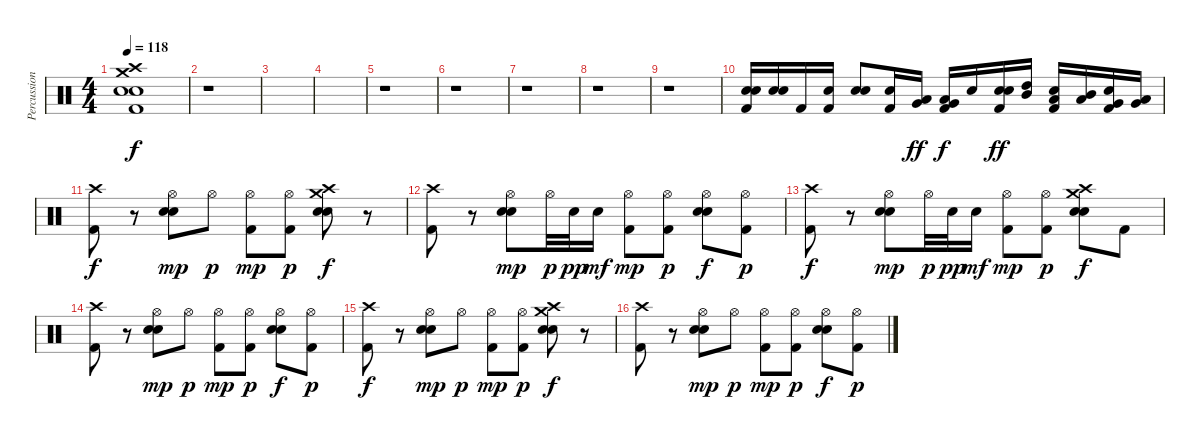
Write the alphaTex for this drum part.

\track ("Percussion" "Percussion") {instrument percussion}
\staff
\articulation defaults
\ts (4 4)
\tempo 118
\clef neutral
\ks c
("Crash medium (hit)" "Crash high (hit)" "Electric Snare (hit)" "Snare (hit) 2" "Kick (hit) 2").1{dy f} |
r.1 |
|
|
r.1 |
r.1 |
r.1 |
r.1 |
r.1 |
("Snare (hit) 2" "Electric Snare (hit)" "Kick (hit) 2").16 ("Snare (hit) 2" "Electric Snare (hit)").16 "Kick (hit) 2".16 ("Electric Snare (hit)" "Kick (hit) 2").16 ("Snare (hit) 2" "Electric Snare (hit)").8 ("Electric Snare (hit)" "Kick (hit) 2").16 ("Very Low Tom (hit)" "Low Tom (hit)").16{dy ff} ("Very Low Tom (hit)" "Low Floor Tom (hit)" "Kick (hit) 2").16{dy f} "Electric Snare (hit)".16 ("Snare (hit) 2" "Electric Snare (hit)" "Kick (hit) 2").16{dy ff} ("High Tom (hit)" "Mid Tom (hit)").16 ("Low Tom (hit)" "Electric Snare (hit)" "Kick (hit) 2").16 ("Low Tom (hit)" "Mid Tom (hit)").16 ("Very Low Tom (hit)" "Electric Snare (hit)" "Kick (hit) 2").16 ("Very Low Tom (hit)" "Low Tom (hit)").16 |
("Crash high (hit)" "Kick (hit) 2").8{dy f} r.8 ("Hi-Hat (open)" "Electric Snare (hit)" "Snare (hit) 2").8{dy mp} "Hi-Hat (open)".8{dy p} ("Hi-Hat (open)" "Kick (hit) 2").8{dy mp} ("Hi-Hat (open)" "Kick (hit) 2").8{dy p} ("Crash medium (hit)" "Crash high (hit)" "Electric Snare (hit)" "Snare (hit) 2").8{dy f} r.8 |
("Crash high (hit)" "Kick (hit) 2").8 r.8 ("Hi-Hat (open)" "Electric Snare (hit)" "Snare (hit) 2").8{dy mp} "Hi-Hat (open)".32{dy p} "Snare (hit) 2".32{dy pp} "Snare (hit) 2".16{dy mf} ("Hi-Hat (open)" "Kick (hit) 2").8{dy mp} ("Hi-Hat (open)" "Kick (hit) 2").8{dy p} ("Hi-Hat (open)" "Electric Snare (hit)" "Snare (hit) 2").8{dy f} ("Hi-Hat (open)" "Kick (hit) 2").8{dy p} |
("Crash high (hit)" "Kick (hit) 2").8{dy f} r.8 ("Hi-Hat (open)" "Electric Snare (hit)" "Snare (hit) 2").8{dy mp} "Hi-Hat (open)".32{dy p} "Snare (hit) 2".32{dy pp} "Snare (hit) 2".16{dy mf} ("Hi-Hat (open)" "Kick (hit) 2").8{dy mp} ("Hi-Hat (open)" "Kick (hit) 2").8{dy p} ("Crash medium (hit)" "Crash high (hit)" "Electric Snare (hit)" "Snare (hit) 2").8{dy f} "Kick (hit) 2".8 |
("Crash high (hit)" "Kick (hit) 2").8 r.8 ("Hi-Hat (open)" "Electric Snare (hit)" "Snare (hit) 2").8{dy mp} "Hi-Hat (open)".8{dy p} ("Hi-Hat (open)" "Kick (hit) 2").8{dy mp} ("Hi-Hat (open)" "Kick (hit) 2").8{dy p} ("Hi-Hat (open)" "Electric Snare (hit)" "Snare (hit) 2").8{dy f} ("Hi-Hat (open)" "Kick (hit) 2").8{dy p} |
("Crash high (hit)" "Kick (hit) 2").8{dy f} r.8 ("Hi-Hat (open)" "Electric Snare (hit)" "Snare (hit) 2").8{dy mp} "Hi-Hat (open)".8{dy p} ("Hi-Hat (open)" "Kick (hit) 2").8{dy mp} ("Hi-Hat (open)" "Kick (hit) 2").8{dy p} ("Crash medium (hit)" "Crash high (hit)" "Electric Snare (hit)" "Snare (hit) 2").8{dy f} r.8 |
("Crash high (hit)" "Kick (hit) 2").8 r.8 ("Hi-Hat (open)" "Electric Snare (hit)" "Snare (hit) 2").8{dy mp} "Hi-Hat (open)".8{dy p} ("Hi-Hat (open)" "Kick (hit) 2").8{dy mp} ("Hi-Hat (open)" "Kick (hit) 2").8{dy p} ("Hi-Hat (open)" "Electric Snare (hit)" "Snare (hit) 2").8{dy f} ("Hi-Hat (open)" "Kick (hit) 2").8{dy p}
